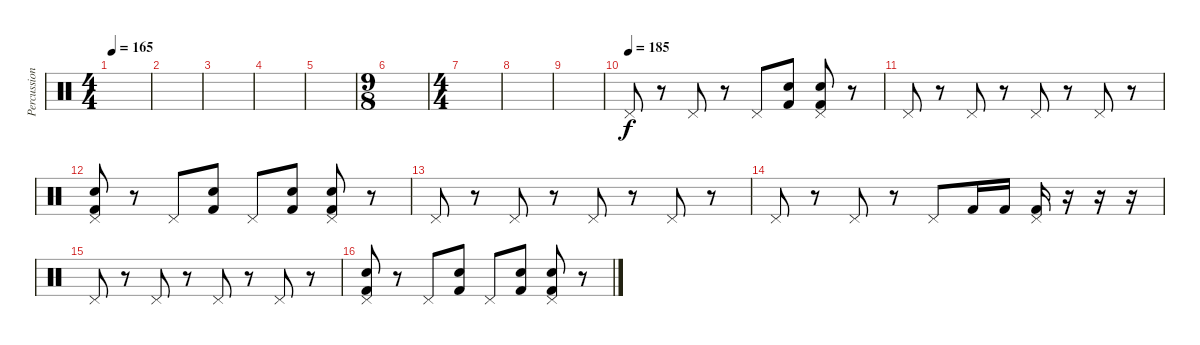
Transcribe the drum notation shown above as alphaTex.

\track ("Percussion" "Percussion") {instrument percussion}
\staff {score}
\articulation defaults
\ts (4 4)
\tempo 165
\clef neutral
\ks c
|
|
|
|
|
\ts (9 8)
|
\ts (4 4)
|
|
|
\tempo (185)
"Pedal Hi-Hat (hit)".8 r.8 "Pedal Hi-Hat (hit)".8 r.8 "Pedal Hi-Hat (hit)".8 ("Kick (hit) 2" "Snare (hit) 2").8 ("Pedal Hi-Hat (hit)" "Kick (hit) 2" "Snare (hit) 2").8 r.8 |
"Pedal Hi-Hat (hit)".8 r.8 "Pedal Hi-Hat (hit)".8 r.8 "Pedal Hi-Hat (hit)".8 r.8 "Pedal Hi-Hat (hit)".8 r.8 |
("Pedal Hi-Hat (hit)" "Kick (hit) 2" "Snare (hit) 2").8 r.8 "Pedal Hi-Hat (hit)".8 ("Kick (hit) 2" "Snare (hit) 2").8 "Pedal Hi-Hat (hit)".8 ("Kick (hit) 2" "Snare (hit) 2").8 ("Pedal Hi-Hat (hit)" "Kick (hit) 2" "Snare (hit) 2").8 r.8 |
"Pedal Hi-Hat (hit)".8 r.8 "Pedal Hi-Hat (hit)".8 r.8 "Pedal Hi-Hat (hit)".8 r.8 "Pedal Hi-Hat (hit)".8 r.8 |
"Pedal Hi-Hat (hit)".8 r.8 "Pedal Hi-Hat (hit)".8 r.8 "Pedal Hi-Hat (hit)".8 "Kick (hit) 2".16 "Kick (hit) 2".16 ("Pedal Hi-Hat (hit)" "Kick (hit) 2").16 r.16 r.16 r.16 |
"Pedal Hi-Hat (hit)".8 r.8 "Pedal Hi-Hat (hit)".8 r.8 "Pedal Hi-Hat (hit)".8 r.8 "Pedal Hi-Hat (hit)".8 r.8 |
("Pedal Hi-Hat (hit)" "Kick (hit) 2" "Snare (hit) 2").8 r.8 "Pedal Hi-Hat (hit)".8 ("Kick (hit) 2" "Snare (hit) 2").8 "Pedal Hi-Hat (hit)".8 ("Kick (hit) 2" "Snare (hit) 2").8 ("Pedal Hi-Hat (hit)" "Kick (hit) 2" "Snare (hit) 2").8 r.8
